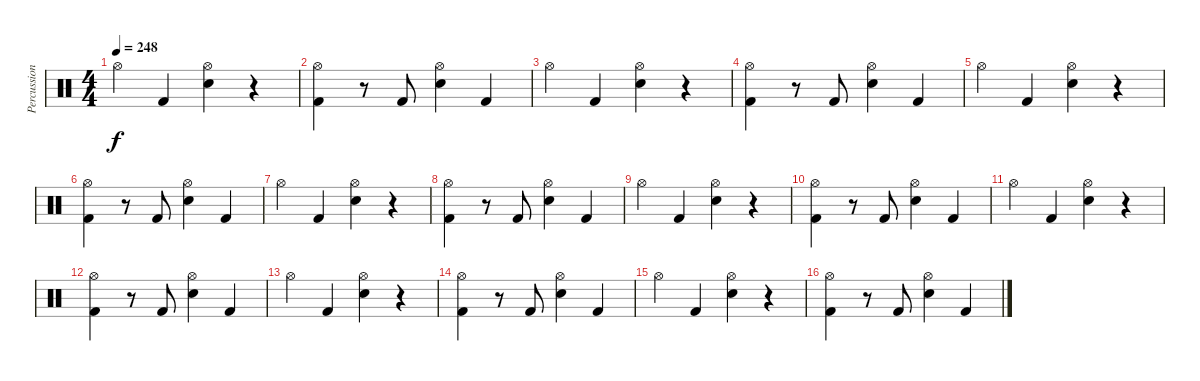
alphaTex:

\track ("Percussion" "Percussion") {instrument percussion}
\staff {score}
\articulation defaults
\ts (4 4)
\tempo 248
\clef neutral
\ks c "Hi-Hat (open)".4{dy f} "Kick (hit) 2".4
("Hi-Hat (open)" "Snare (hit) 2").4 r.4 |
("Hi-Hat (open)" "Kick (hit) 2").4 r.8 "Kick (hit) 2".8 ("Hi-Hat (open)" "Snare (hit) 2").4 "Kick (hit) 2".4 |
"Hi-Hat (open)".4 "Kick (hit) 2".4 ("Hi-Hat (open)" "Snare (hit) 2").4 r.4 |
("Hi-Hat (open)" "Kick (hit) 2").4 r.8 "Kick (hit) 2".8 ("Hi-Hat (open)" "Snare (hit) 2").4 "Kick (hit) 2".4 |
"Hi-Hat (open)".4 "Kick (hit) 2".4 ("Hi-Hat (open)" "Snare (hit) 2").4 r.4 |
("Hi-Hat (open)" "Kick (hit) 2").4 r.8 "Kick (hit) 2".8 ("Hi-Hat (open)" "Snare (hit) 2").4 "Kick (hit) 2".4 |
"Hi-Hat (open)".4 "Kick (hit) 2".4 ("Hi-Hat (open)" "Snare (hit) 2").4 r.4 |
("Hi-Hat (open)" "Kick (hit) 2").4 r.8 "Kick (hit) 2".8 ("Hi-Hat (open)" "Snare (hit) 2").4 "Kick (hit) 2".4 |
"Hi-Hat (open)".4 "Kick (hit) 2".4 ("Hi-Hat (open)" "Snare (hit) 2").4 r.4 |
("Hi-Hat (open)" "Kick (hit) 2").4 r.8 "Kick (hit) 2".8 ("Hi-Hat (open)" "Snare (hit) 2").4 "Kick (hit) 2".4 |
"Hi-Hat (open)".4 "Kick (hit) 2".4 ("Hi-Hat (open)" "Snare (hit) 2").4 r.4 |
("Hi-Hat (open)" "Kick (hit) 2").4 r.8 "Kick (hit) 2".8 ("Hi-Hat (open)" "Snare (hit) 2").4 "Kick (hit) 2".4 |
"Hi-Hat (open)".4 "Kick (hit) 2".4 ("Hi-Hat (open)" "Snare (hit) 2").4 r.4 |
("Hi-Hat (open)" "Kick (hit) 2").4 r.8 "Kick (hit) 2".8 ("Hi-Hat (open)" "Snare (hit) 2").4 "Kick (hit) 2".4 |
"Hi-Hat (open)".4 "Kick (hit) 2".4 ("Hi-Hat (open)" "Snare (hit) 2").4 r.4 |
("Hi-Hat (open)" "Kick (hit) 2").4 r.8 "Kick (hit) 2".8 ("Hi-Hat (open)" "Snare (hit) 2").4 "Kick (hit) 2".4
